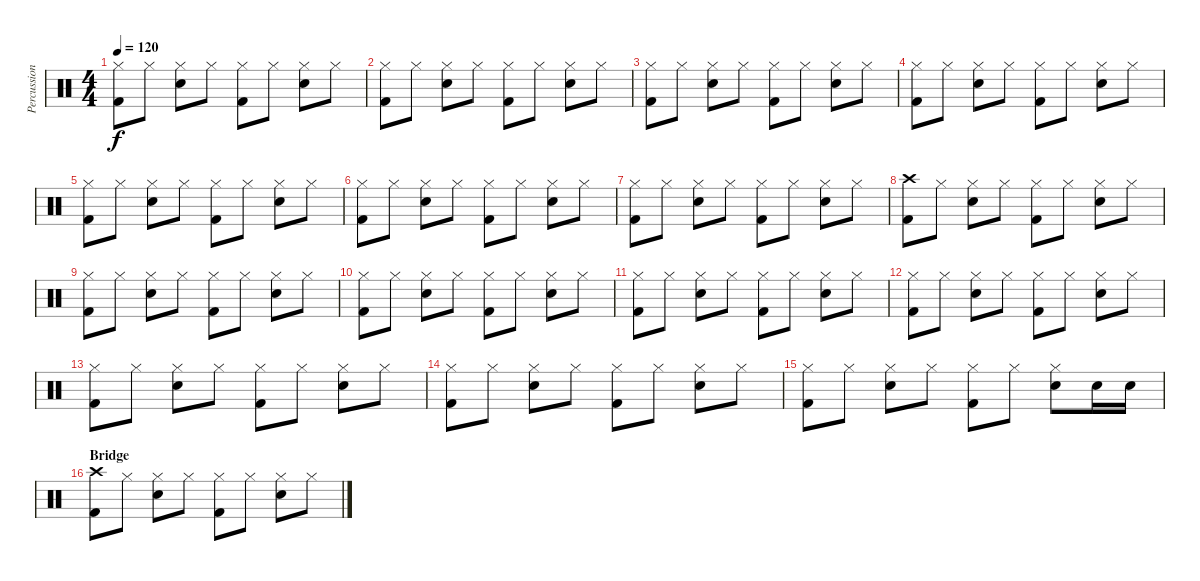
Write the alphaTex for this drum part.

\track ("Percussion" "Percussion") {instrument percussion}
\staff {score}
\articulation defaults
\ts (4 4)
\tempo 120
\clef neutral
\ks c
("Hi-Hat (closed)" "Kick (hit) 2").8{dy f} "Hi-Hat (closed)".8 ("Hi-Hat (closed)" "Electric Snare (hit)").8 "Hi-Hat (closed)".8 ("Hi-Hat (closed)" "Kick (hit) 2").8 "Hi-Hat (closed)".8 ("Hi-Hat (closed)" "Electric Snare (hit)").8 "Hi-Hat (closed)".8 |
("Hi-Hat (closed)" "Kick (hit) 2").8 "Hi-Hat (closed)".8 ("Hi-Hat (closed)" "Electric Snare (hit)").8 "Hi-Hat (closed)".8 ("Hi-Hat (closed)" "Kick (hit) 2").8 "Hi-Hat (closed)".8 ("Hi-Hat (closed)" "Electric Snare (hit)").8 "Hi-Hat (closed)".8 |
("Hi-Hat (closed)" "Kick (hit) 2").8 "Hi-Hat (closed)".8 ("Hi-Hat (closed)" "Electric Snare (hit)").8 "Hi-Hat (closed)".8 ("Hi-Hat (closed)" "Kick (hit) 2").8 "Hi-Hat (closed)".8 ("Hi-Hat (closed)" "Electric Snare (hit)").8 "Hi-Hat (closed)".8 |
("Hi-Hat (closed)" "Kick (hit) 2").8 "Hi-Hat (closed)".8 ("Hi-Hat (closed)" "Electric Snare (hit)").8 "Hi-Hat (closed)".8 ("Hi-Hat (closed)" "Kick (hit) 2").8 "Hi-Hat (closed)".8 ("Hi-Hat (closed)" "Electric Snare (hit)").8 "Hi-Hat (closed)".8 |
("Hi-Hat (closed)" "Kick (hit) 2").8 "Hi-Hat (closed)".8 ("Hi-Hat (closed)" "Electric Snare (hit)").8 "Hi-Hat (closed)".8 ("Hi-Hat (closed)" "Kick (hit) 2").8 "Hi-Hat (closed)".8 ("Hi-Hat (closed)" "Electric Snare (hit)").8 "Hi-Hat (closed)".8 |
("Hi-Hat (closed)" "Kick (hit) 2").8 "Hi-Hat (closed)".8 ("Hi-Hat (closed)" "Electric Snare (hit)").8 "Hi-Hat (closed)".8 ("Hi-Hat (closed)" "Kick (hit) 2").8 "Hi-Hat (closed)".8 ("Hi-Hat (closed)" "Electric Snare (hit)").8 "Hi-Hat (closed)".8 |
("Hi-Hat (closed)" "Kick (hit) 2").8 "Hi-Hat (closed)".8 ("Hi-Hat (closed)" "Electric Snare (hit)").8 "Hi-Hat (closed)".8 ("Hi-Hat (closed)" "Kick (hit) 2").8 "Hi-Hat (closed)".8 ("Hi-Hat (closed)" "Electric Snare (hit)").8 "Hi-Hat (closed)".8 |
("Crash high (hit)" "Kick (hit) 2").8 "Hi-Hat (closed)".8 ("Hi-Hat (closed)" "Electric Snare (hit)").8 "Hi-Hat (closed)".8 ("Hi-Hat (closed)" "Kick (hit) 2").8 "Hi-Hat (closed)".8 ("Hi-Hat (closed)" "Electric Snare (hit)").8 "Hi-Hat (closed)".8 |
("Hi-Hat (closed)" "Kick (hit) 2").8 "Hi-Hat (closed)".8 ("Hi-Hat (closed)" "Electric Snare (hit)").8 "Hi-Hat (closed)".8 ("Hi-Hat (closed)" "Kick (hit) 2").8 "Hi-Hat (closed)".8 ("Hi-Hat (closed)" "Electric Snare (hit)").8 "Hi-Hat (closed)".8 |
("Hi-Hat (closed)" "Kick (hit) 2").8 "Hi-Hat (closed)".8 ("Hi-Hat (closed)" "Electric Snare (hit)").8 "Hi-Hat (closed)".8 ("Hi-Hat (closed)" "Kick (hit) 2").8 "Hi-Hat (closed)".8 ("Hi-Hat (closed)" "Electric Snare (hit)").8 "Hi-Hat (closed)".8 |
("Hi-Hat (closed)" "Kick (hit) 2").8 "Hi-Hat (closed)".8 ("Hi-Hat (closed)" "Electric Snare (hit)").8 "Hi-Hat (closed)".8 ("Hi-Hat (closed)" "Kick (hit) 2").8 "Hi-Hat (closed)".8 ("Hi-Hat (closed)" "Electric Snare (hit)").8 "Hi-Hat (closed)".8 |
("Hi-Hat (closed)" "Kick (hit) 2").8 "Hi-Hat (closed)".8 ("Hi-Hat (closed)" "Electric Snare (hit)").8 "Hi-Hat (closed)".8 ("Hi-Hat (closed)" "Kick (hit) 2").8 "Hi-Hat (closed)".8 ("Hi-Hat (closed)" "Electric Snare (hit)").8 "Hi-Hat (closed)".8 |
("Hi-Hat (closed)" "Kick (hit) 2").8 "Hi-Hat (closed)".8 ("Hi-Hat (closed)" "Electric Snare (hit)").8 "Hi-Hat (closed)".8 ("Hi-Hat (closed)" "Kick (hit) 2").8 "Hi-Hat (closed)".8 ("Hi-Hat (closed)" "Electric Snare (hit)").8 "Hi-Hat (closed)".8 |
("Hi-Hat (closed)" "Kick (hit) 2").8 "Hi-Hat (closed)".8 ("Hi-Hat (closed)" "Electric Snare (hit)").8 "Hi-Hat (closed)".8 ("Hi-Hat (closed)" "Kick (hit) 2").8 "Hi-Hat (closed)".8 ("Hi-Hat (closed)" "Electric Snare (hit)").8 "Hi-Hat (closed)".8 |
("Hi-Hat (closed)" "Kick (hit) 2").8 "Hi-Hat (closed)".8 ("Hi-Hat (closed)" "Electric Snare (hit)").8 "Hi-Hat (closed)".8 ("Hi-Hat (closed)" "Kick (hit) 2").8 "Hi-Hat (closed)".8 ("Hi-Hat (closed)" "Electric Snare (hit)").8 "Electric Snare (hit)".16 "Electric Snare (hit)".16 |
\section ("" "Bridge")
("Crash high (hit)" "Kick (hit) 2").8 "Hi-Hat (closed)".8 ("Hi-Hat (closed)" "Electric Snare (hit)").8 "Hi-Hat (closed)".8 ("Hi-Hat (closed)" "Kick (hit) 2").8 "Hi-Hat (closed)".8 ("Hi-Hat (closed)" "Electric Snare (hit)").8 "Hi-Hat (closed)".8
